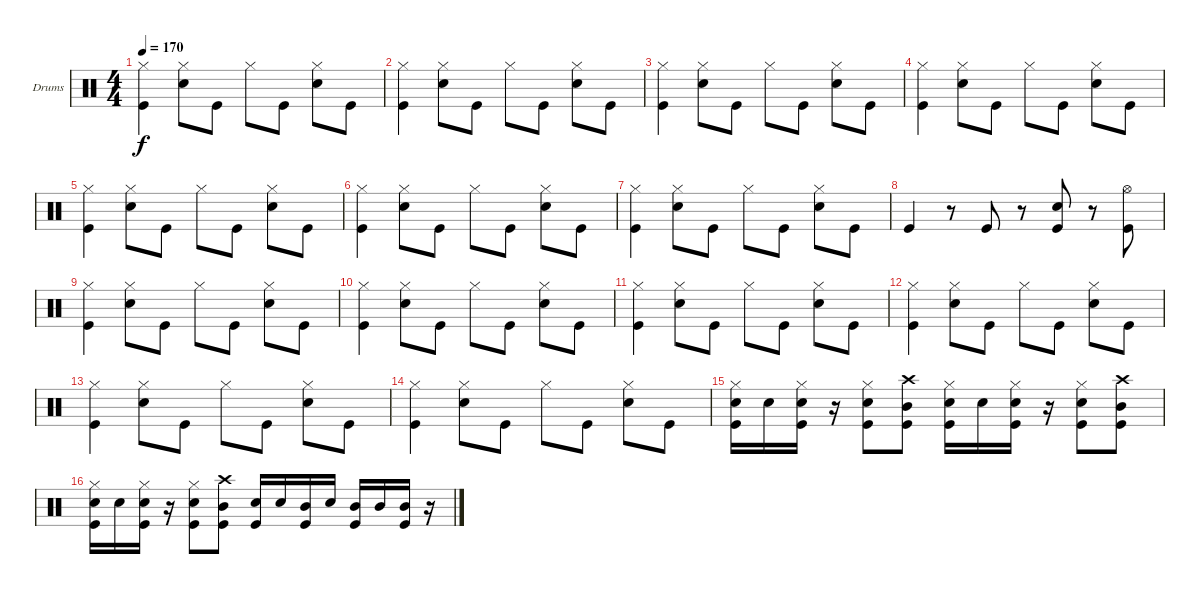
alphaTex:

\bracketExtendMode groupsimilarinstruments
\firstSystemTrackNameOrientation horizontal
\otherSystemsTrackNameOrientation horizontal
\track ("Drumkit" "Drums") {instrument percussion}
\staff {score}
\articulation defaults
\ts (4 4)
\tempo 170
\clef neutral
\ks c
("Hi-Hat (closed)" "Kick (hit)").4{dy f} ("Hi-Hat (closed)" "Snare (hit) 2").8 "Kick (hit)".8 "Hi-Hat (closed)".8 "Kick (hit)".8 ("Hi-Hat (closed)" "Snare (hit) 2").8 "Kick (hit)".8 |
("Hi-Hat (closed)" "Kick (hit)").4 ("Hi-Hat (closed)" "Snare (hit) 2").8 "Kick (hit)".8 "Hi-Hat (closed)".8 "Kick (hit)".8 ("Hi-Hat (closed)" "Snare (hit) 2").8 "Kick (hit)".8 |
("Hi-Hat (closed)" "Kick (hit)").4 ("Hi-Hat (closed)" "Snare (hit) 2").8 "Kick (hit)".8 "Hi-Hat (closed)".8 "Kick (hit)".8 ("Hi-Hat (closed)" "Snare (hit) 2").8 "Kick (hit)".8 |
("Hi-Hat (closed)" "Kick (hit)").4 ("Hi-Hat (closed)" "Snare (hit) 2").8 "Kick (hit)".8 "Hi-Hat (closed)".8 "Kick (hit)".8 ("Hi-Hat (closed)" "Snare (hit) 2").8 "Kick (hit)".8 |
("Hi-Hat (closed)" "Kick (hit)").4 ("Hi-Hat (closed)" "Snare (hit) 2").8 "Kick (hit)".8 "Hi-Hat (closed)".8 "Kick (hit)".8 ("Hi-Hat (closed)" "Snare (hit) 2").8 "Kick (hit)".8 |
("Hi-Hat (closed)" "Kick (hit)").4 ("Hi-Hat (closed)" "Snare (hit) 2").8 "Kick (hit)".8 "Hi-Hat (closed)".8 "Kick (hit)".8 ("Hi-Hat (closed)" "Snare (hit) 2").8 "Kick (hit)".8 |
("Hi-Hat (closed)" "Kick (hit)").4 ("Hi-Hat (closed)" "Snare (hit) 2").8 "Kick (hit)".8 "Hi-Hat (closed)".8 "Kick (hit)".8 ("Hi-Hat (closed)" "Snare (hit) 2").8 "Kick (hit)".8 |
"Kick (hit)".4 r.8 "Kick (hit)".8 r.8 ("Snare (hit) 2" "Kick (hit)").8 r.8 ("Hi-Hat (open)" "Kick (hit)").8 |
("Hi-Hat (closed)" "Kick (hit)").4 ("Hi-Hat (closed)" "Snare (hit) 2").8 "Kick (hit)".8 "Hi-Hat (closed)".8 "Kick (hit)".8 ("Hi-Hat (closed)" "Snare (hit) 2").8 "Kick (hit)".8 |
("Hi-Hat (closed)" "Kick (hit)").4 ("Hi-Hat (closed)" "Snare (hit) 2").8 "Kick (hit)".8 "Hi-Hat (closed)".8 "Kick (hit)".8 ("Hi-Hat (closed)" "Snare (hit) 2").8 "Kick (hit)".8 |
("Hi-Hat (closed)" "Kick (hit)").4 ("Hi-Hat (closed)" "Snare (hit) 2").8 "Kick (hit)".8 "Hi-Hat (closed)".8 "Kick (hit)".8 ("Hi-Hat (closed)" "Snare (hit) 2").8 "Kick (hit)".8 |
("Hi-Hat (closed)" "Kick (hit)").4 ("Hi-Hat (closed)" "Snare (hit) 2").8 "Kick (hit)".8 "Hi-Hat (closed)".8 "Kick (hit)".8 ("Hi-Hat (closed)" "Snare (hit) 2").8 "Kick (hit)".8 |
("Hi-Hat (closed)" "Kick (hit)").4 ("Hi-Hat (closed)" "Snare (hit) 2").8 "Kick (hit)".8 "Hi-Hat (closed)".8 "Kick (hit)".8 ("Hi-Hat (closed)" "Snare (hit) 2").8 "Kick (hit)".8 |
("Hi-Hat (closed)" "Kick (hit)").4 ("Hi-Hat (closed)" "Snare (hit) 2").8 "Kick (hit)".8 "Hi-Hat (closed)".8 "Kick (hit)".8 ("Hi-Hat (closed)" "Snare (hit) 2").8 "Kick (hit)".8 |
("Hi-Hat (closed)" "Snare (hit) 2" "Kick (hit)").16 "Snare (hit) 2".16 ("Hi-Hat (closed)" "Snare (hit) 2" "Kick (hit)").16 r.16 ("Hi-Hat (closed)" "Snare (hit) 2" "Kick (hit)").8 ("Crash high (hit)" "Mid Tom (hit)" "Kick (hit)").8 ("Hi-Hat (closed)" "Snare (hit) 2" "Kick (hit)").16 "Snare (hit) 2".16 ("Hi-Hat (closed)" "Snare (hit) 2" "Kick (hit)").16 r.16 ("Hi-Hat (closed)" "Snare (hit) 2" "Kick (hit)").8 ("Crash high (hit)" "Mid Tom (hit)" "Kick (hit)").8 |
("Hi-Hat (closed)" "Snare (hit) 2" "Kick (hit)").16 "Snare (hit) 2".16 ("Hi-Hat (closed)" "Snare (hit) 2" "Kick (hit)").16 r.16 ("Hi-Hat (closed)" "Snare (hit) 2" "Kick (hit)").8 ("Crash high (hit)" "Mid Tom (hit)" "Kick (hit)").8 ("Snare (hit) 2" "Kick (hit)").16 "Snare (hit) 2".16 ("Mid Tom (hit)" "Kick (hit)").16 "Snare (hit) 2".16 ("Mid Tom (hit)" "Kick (hit)").16 "Mid Tom (hit)".16 ("Mid Tom (hit)" "Kick (hit)").16 r.16
